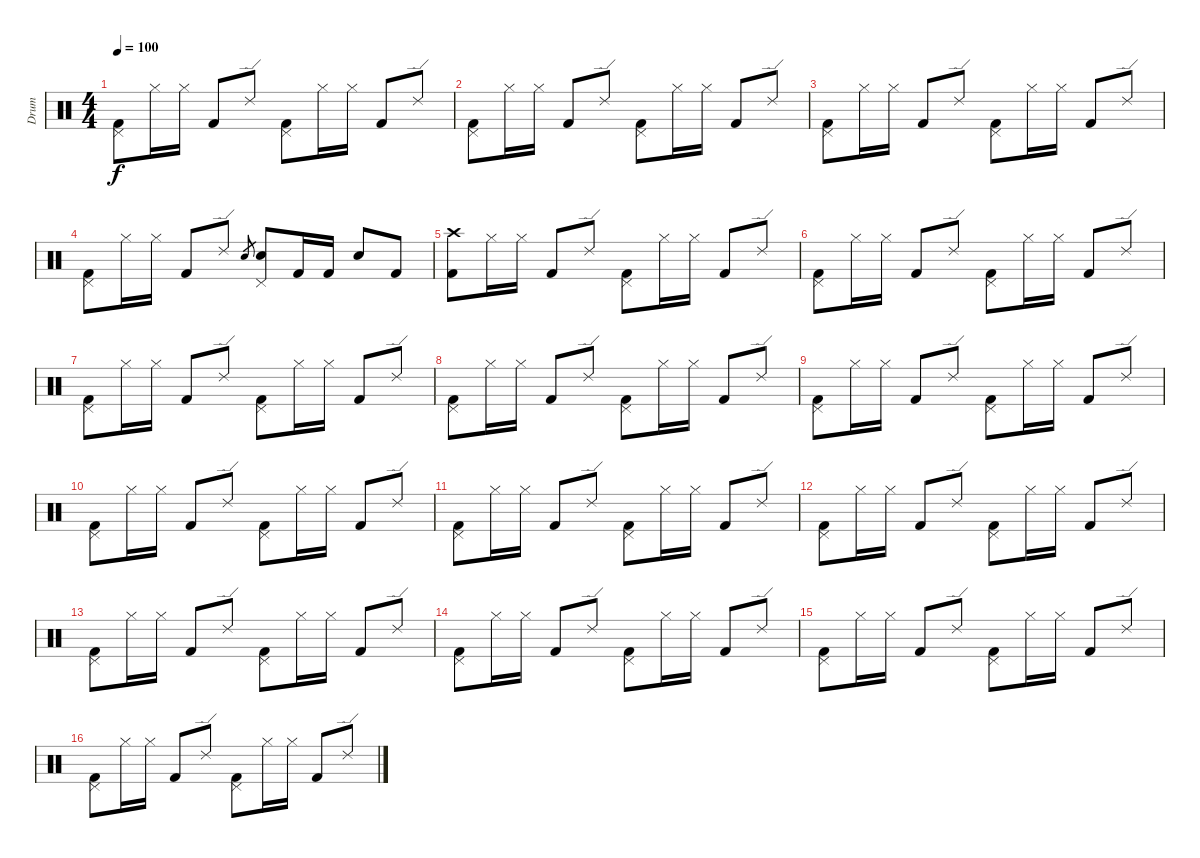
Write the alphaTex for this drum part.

\track ("Drum " "Drum ") {instrument percussion}
\staff {score}
\articulation defaults
\ts (4 4)
\tempo 100
\clef neutral
\ks c
("Pedal Hi-Hat (hit)" "Kick (hit) 2").8{dy f} "Hi-Hat (closed)".16 "Hi-Hat (closed)".16 "Kick (hit) 2".8 "Ride (edge) 2".8 ("Pedal Hi-Hat (hit)" "Kick (hit) 2").8 "Hi-Hat (closed)".16 "Hi-Hat (closed)".16 "Kick (hit) 2".8 "Ride (edge) 2".8 |
("Pedal Hi-Hat (hit)" "Kick (hit) 2").8 "Hi-Hat (closed)".16 "Hi-Hat (closed)".16 "Kick (hit) 2".8 "Ride (edge) 2".8 ("Pedal Hi-Hat (hit)" "Kick (hit) 2").8 "Hi-Hat (closed)".16 "Hi-Hat (closed)".16 "Kick (hit) 2".8 "Ride (edge) 2".8 |
("Pedal Hi-Hat (hit)" "Kick (hit) 2").8 "Hi-Hat (closed)".16 "Hi-Hat (closed)".16 "Kick (hit) 2".8 "Ride (edge) 2".8 ("Pedal Hi-Hat (hit)" "Kick (hit) 2").8 "Hi-Hat (closed)".16 "Hi-Hat (closed)".16 "Kick (hit) 2".8 "Ride (edge) 2".8 |
("Pedal Hi-Hat (hit)" "Kick (hit) 2").8 "Hi-Hat (closed)".16 "Hi-Hat (closed)".16 "Kick (hit) 2".8 "Ride (edge) 2".8 "Snare (hit) 2".8{gr} ("Pedal Hi-Hat (hit)" "Snare (hit) 2").8 "Kick (hit) 2".16 "Kick (hit) 2".16 "Snare (hit) 2".8 "Kick (hit) 2".8 |
("Crash high (hit)" "Kick (hit) 2").8 "Hi-Hat (closed)".16 "Hi-Hat (closed)".16 "Kick (hit) 2".8 "Ride (edge) 2".8 ("Pedal Hi-Hat (hit)" "Kick (hit) 2").8 "Hi-Hat (closed)".16 "Hi-Hat (closed)".16 "Kick (hit) 2".8 "Ride (edge) 2".8 |
("Pedal Hi-Hat (hit)" "Kick (hit) 2").8 "Hi-Hat (closed)".16 "Hi-Hat (closed)".16 "Kick (hit) 2".8 "Ride (edge) 2".8 ("Pedal Hi-Hat (hit)" "Kick (hit) 2").8 "Hi-Hat (closed)".16 "Hi-Hat (closed)".16 "Kick (hit) 2".8 "Ride (edge) 2".8 |
("Pedal Hi-Hat (hit)" "Kick (hit) 2").8 "Hi-Hat (closed)".16 "Hi-Hat (closed)".16 "Kick (hit) 2".8 "Ride (edge) 2".8 ("Pedal Hi-Hat (hit)" "Kick (hit) 2").8 "Hi-Hat (closed)".16 "Hi-Hat (closed)".16 "Kick (hit) 2".8 "Ride (edge) 2".8 |
("Pedal Hi-Hat (hit)" "Kick (hit) 2").8 "Hi-Hat (closed)".16 "Hi-Hat (closed)".16 "Kick (hit) 2".8 "Ride (edge) 2".8 ("Pedal Hi-Hat (hit)" "Kick (hit) 2").8 "Hi-Hat (closed)".16 "Hi-Hat (closed)".16 "Kick (hit) 2".8 "Ride (edge) 2".8 |
("Pedal Hi-Hat (hit)" "Kick (hit) 2").8 "Hi-Hat (closed)".16 "Hi-Hat (closed)".16 "Kick (hit) 2".8 "Ride (edge) 2".8 ("Pedal Hi-Hat (hit)" "Kick (hit) 2").8 "Hi-Hat (closed)".16 "Hi-Hat (closed)".16 "Kick (hit) 2".8 "Ride (edge) 2".8 |
("Pedal Hi-Hat (hit)" "Kick (hit) 2").8 "Hi-Hat (closed)".16 "Hi-Hat (closed)".16 "Kick (hit) 2".8 "Ride (edge) 2".8 ("Pedal Hi-Hat (hit)" "Kick (hit) 2").8 "Hi-Hat (closed)".16 "Hi-Hat (closed)".16 "Kick (hit) 2".8 "Ride (edge) 2".8 |
("Pedal Hi-Hat (hit)" "Kick (hit) 2").8 "Hi-Hat (closed)".16 "Hi-Hat (closed)".16 "Kick (hit) 2".8 "Ride (edge) 2".8 ("Pedal Hi-Hat (hit)" "Kick (hit) 2").8 "Hi-Hat (closed)".16 "Hi-Hat (closed)".16 "Kick (hit) 2".8 "Ride (edge) 2".8 |
("Pedal Hi-Hat (hit)" "Kick (hit) 2").8 "Hi-Hat (closed)".16 "Hi-Hat (closed)".16 "Kick (hit) 2".8 "Ride (edge) 2".8 ("Pedal Hi-Hat (hit)" "Kick (hit) 2").8 "Hi-Hat (closed)".16 "Hi-Hat (closed)".16 "Kick (hit) 2".8 "Ride (edge) 2".8 |
("Pedal Hi-Hat (hit)" "Kick (hit) 2").8 "Hi-Hat (closed)".16 "Hi-Hat (closed)".16 "Kick (hit) 2".8 "Ride (edge) 2".8 ("Pedal Hi-Hat (hit)" "Kick (hit) 2").8 "Hi-Hat (closed)".16 "Hi-Hat (closed)".16 "Kick (hit) 2".8 "Ride (edge) 2".8 |
("Pedal Hi-Hat (hit)" "Kick (hit) 2").8 "Hi-Hat (closed)".16 "Hi-Hat (closed)".16 "Kick (hit) 2".8 "Ride (edge) 2".8 ("Pedal Hi-Hat (hit)" "Kick (hit) 2").8 "Hi-Hat (closed)".16 "Hi-Hat (closed)".16 "Kick (hit) 2".8 "Ride (edge) 2".8 |
("Pedal Hi-Hat (hit)" "Kick (hit) 2").8 "Hi-Hat (closed)".16 "Hi-Hat (closed)".16 "Kick (hit) 2".8 "Ride (edge) 2".8 ("Pedal Hi-Hat (hit)" "Kick (hit) 2").8 "Hi-Hat (closed)".16 "Hi-Hat (closed)".16 "Kick (hit) 2".8 "Ride (edge) 2".8 |
("Pedal Hi-Hat (hit)" "Kick (hit) 2").8 "Hi-Hat (closed)".16 "Hi-Hat (closed)".16 "Kick (hit) 2".8 "Ride (edge) 2".8 ("Pedal Hi-Hat (hit)" "Kick (hit) 2").8 "Hi-Hat (closed)".16 "Hi-Hat (closed)".16 "Kick (hit) 2".8 "Ride (edge) 2".8
